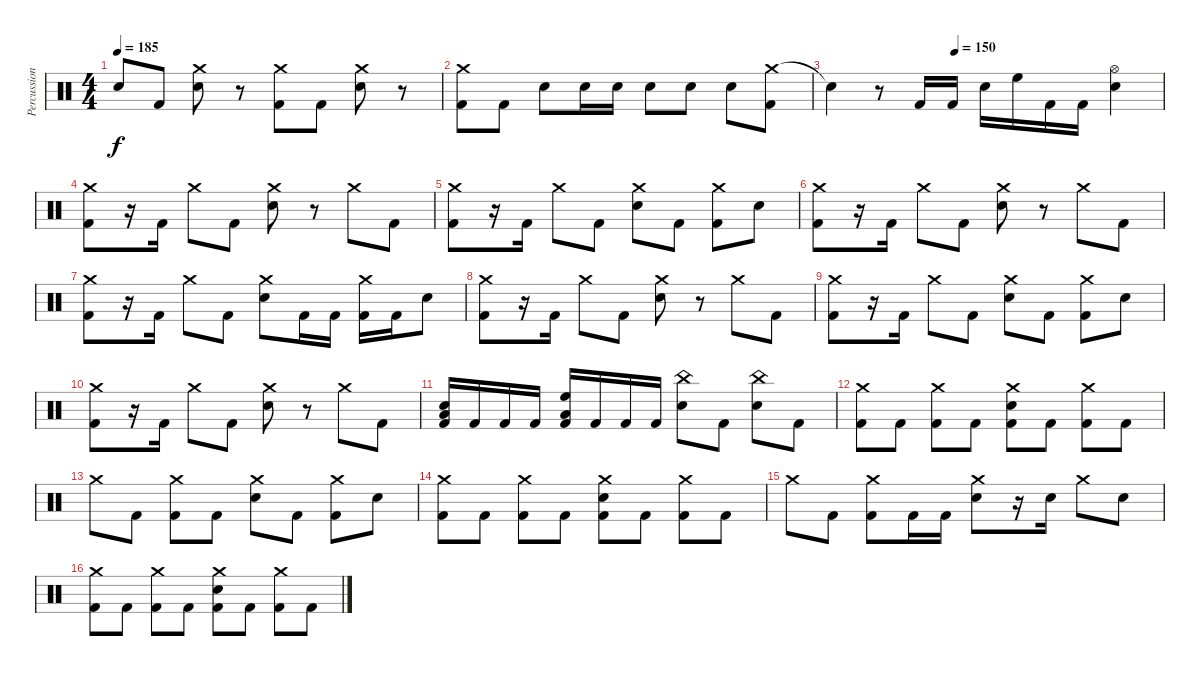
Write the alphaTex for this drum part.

\track ("Percussion" "Percussion") {instrument percussion}
\staff {score}
\articulation defaults
\ts (4 4)
\tempo 185
\clef neutral
\ks c "Snare (hit)"{t}.8{dy f} "Kick (hit) 2".8
("Crash medium (hit)" "Snare (hit) 2").8 r.8 ("Crash medium (hit)" "Kick (hit) 2").8 "Kick (hit) 2".8 ("Crash medium (hit)" "Snare (hit) 2").8 r.8 |
("Crash medium (hit)" "Kick (hit) 2").8 "Kick (hit) 2".8 "Snare (hit) 2".8 "Snare (hit) 2".16 "Snare (hit) 2".16 "Snare (hit) 2".8 "Snare (hit) 2".8 "Snare (hit) 2".8 ("Crash medium (hit)" "Kick (hit) 2").8 |
\tempo (150 0.375)
"Snare (hit)"{t}.4 r.8 "Kick (hit) 2".16 "Kick (hit) 2".16 "Snare (hit) 2".16 "High Floor Tom (hit)".16 "Kick (hit) 2".16 "Kick (hit) 2".16 ("Hi-Hat (open)" "Snare (hit) 2").4 |
("Crash medium (hit)" "Kick (hit) 2").8 r.16 "Kick (hit) 2".16 "Crash medium (hit)".8 "Kick (hit) 2".8 ("Crash medium (hit)" "Snare (hit) 2").8 r.8 "Crash medium (hit)".8 "Kick (hit) 2".8 |
("Crash medium (hit)" "Kick (hit) 2").8 r.16 "Kick (hit) 2".16 "Crash medium (hit)".8 "Kick (hit) 2".8 ("Crash medium (hit)" "Snare (hit) 2").8 "Kick (hit) 2".8 ("Crash medium (hit)" "Kick (hit) 2").8 "Snare (hit) 2".8 |
("Crash medium (hit)" "Kick (hit) 2").8 r.16 "Kick (hit) 2".16 "Crash medium (hit)".8 "Kick (hit) 2".8 ("Crash medium (hit)" "Snare (hit) 2").8 r.8 "Crash medium (hit)".8 "Kick (hit) 2".8 |
("Crash medium (hit)" "Kick (hit) 2").8 r.16 "Kick (hit) 2".16 "Crash medium (hit)".8 "Kick (hit) 2".8 ("Crash medium (hit)" "Snare (hit) 2").8 "Kick (hit) 2".16 "Kick (hit) 2".16 ("Crash medium (hit)" "Kick (hit) 2").16 "Kick (hit) 2".16 "Snare (hit) 2".8 |
("Crash medium (hit)" "Kick (hit) 2").8 r.16 "Kick (hit) 2".16 "Crash medium (hit)".8 "Kick (hit) 2".8 ("Crash medium (hit)" "Snare (hit) 2").8 r.8 "Crash medium (hit)".8 "Kick (hit) 2".8 |
("Crash medium (hit)" "Kick (hit) 2").8 r.16 "Kick (hit) 2".16 "Crash medium (hit)".8 "Kick (hit) 2".8 ("Crash medium (hit)" "Snare (hit) 2").8 "Kick (hit) 2".8 ("Crash medium (hit)" "Kick (hit) 2").8 "Snare (hit) 2".8 |
("Crash medium (hit)" "Kick (hit) 2").8 r.16 "Kick (hit) 2".16 "Crash medium (hit)".8 "Kick (hit) 2".8 ("Crash medium (hit)" "Snare (hit) 2").8 r.8 "Crash medium (hit)".8 "Kick (hit) 2".8 |
("Low Floor Tom (hit)" "Snare (hit) 2" "Kick (hit) 2").16 "Kick (hit) 2".16 "Kick (hit) 2".16 "Kick (hit) 2".16 ("Low Floor Tom (hit)" "High Floor Tom (hit)" "Kick (hit) 2").16 "Kick (hit) 2".16 "Kick (hit) 2".16 "Kick (hit) 2".16 ("China (hit)" "Snare (hit) 2").8 "Kick (hit) 2".8 ("China (hit)" "Snare (hit) 2").8 "Kick (hit) 2".8 |
("Crash medium (hit)" "Kick (hit) 2").8 "Kick (hit) 2".8 ("Crash medium (hit)" "Kick (hit) 2").8 "Kick (hit) 2".8 ("Crash medium (hit)" "Snare (hit) 2" "Kick (hit) 2").8 "Kick (hit) 2".8 ("Crash medium (hit)" "Kick (hit) 2").8 "Kick (hit) 2".8 |
"Crash medium (hit)".8 "Kick (hit) 2".8 ("Crash medium (hit)" "Kick (hit) 2").8 "Kick (hit) 2".8 ("Crash medium (hit)" "Snare (hit) 2").8 "Kick (hit) 2".8 ("Crash medium (hit)" "Kick (hit) 2").8 "Snare (hit) 2".8 |
("Crash medium (hit)" "Kick (hit) 2").8 "Kick (hit) 2".8 ("Crash medium (hit)" "Kick (hit) 2").8 "Kick (hit) 2".8 ("Crash medium (hit)" "Snare (hit) 2" "Kick (hit) 2").8 "Kick (hit) 2".8 ("Crash medium (hit)" "Kick (hit) 2").8 "Kick (hit) 2".8 |
"Crash medium (hit)".8 "Kick (hit) 2".8 ("Crash medium (hit)" "Kick (hit) 2").8 "Kick (hit) 2".16 "Kick (hit) 2".16 ("Crash medium (hit)" "Snare (hit) 2").8 r.16 "Snare (hit) 2".16 "Crash medium (hit)".8 "Snare (hit) 2".8 |
("Crash medium (hit)" "Kick (hit) 2").8 "Kick (hit) 2".8 ("Crash medium (hit)" "Kick (hit) 2").8 "Kick (hit) 2".8 ("Crash medium (hit)" "Snare (hit) 2" "Kick (hit) 2").8 "Kick (hit) 2".8 ("Crash medium (hit)" "Kick (hit) 2").8 "Kick (hit) 2".8
